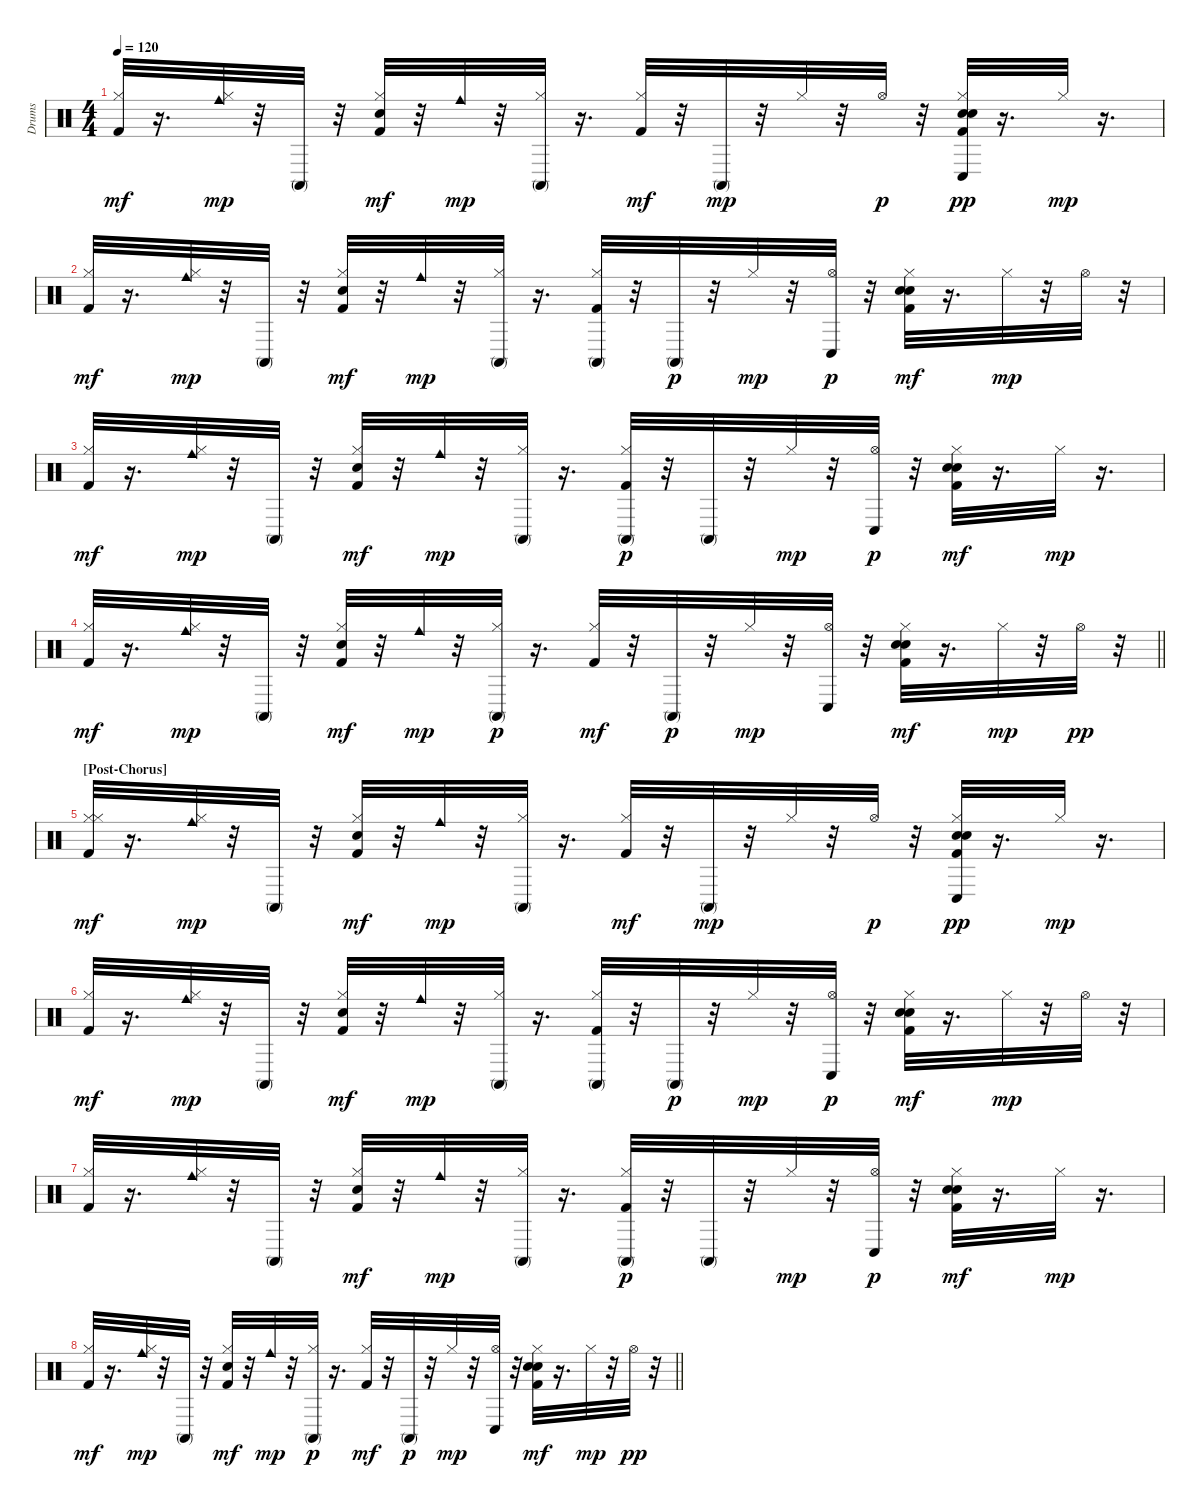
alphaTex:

\track ("Drums" "Drums") {instrument percussion}
\staff {score}
\articulation defaults
\ts (4 4)
\tempo 120
\clef neutral
\ks c
("Hi-Hat (closed)" "Kick (hit) 2").32{dy mf} r.16{d} ("Hi-Hat (closed)" "Cowbell medium (hit)").32{dy mp} r.32 "Conga high (mute)".32 r.32 ("Hi-Hat (closed)" "Electric Snare (hit)" "Kick (hit) 2").32{dy mf} r.32 "Cowbell medium (hit)".32{dy mp} r.32 ("Hi-Hat (closed)" "Conga high (mute)").32 r.16{d} ("Hi-Hat (closed)" "Kick (hit) 2").32{dy mf} r.32 "Conga high (mute)".32{dy mp} r.32 "Hi-Hat (closed)".32 r.32 "Hi-Hat (open)".32{dy p} r.32 ("Hi-Hat (closed)" "Kick (hit) 2" "Hand Clap (hit)" "Electric Snare (hit)" "Conga low (hit)").32{dy pp} r.16{d} "Hi-Hat (closed)".32{dy mp} r.16{d} |
("Hi-Hat (closed)" "Kick (hit) 2").32{dy mf} r.16{d} ("Hi-Hat (closed)" "Cowbell medium (hit)").32{dy mp} r.32 "Conga high (mute)".32 r.32 ("Hi-Hat (closed)" "Electric Snare (hit)" "Kick (hit) 2").32{dy mf} r.32 "Cowbell medium (hit)".32{dy mp} r.32 ("Hi-Hat (closed)" "Conga high (mute)").32 r.16{d} ("Hi-Hat (closed)" "Kick (hit) 2" "Conga high (mute)").32 r.32 "Conga high (mute)".32{dy p} r.32 "Hi-Hat (closed)".32{dy mp} r.32 ("Hi-Hat (open)" "Conga low (hit)").32{dy p} r.32 ("Kick (hit) 2" "Hi-Hat (closed)" "Electric Snare (hit)" "Hand Clap (hit)").32{dy mf} r.16{d} "Hi-Hat (closed)".32{dy mp} r.32 "Hi-Hat (open)".32 r.32 |
("Hi-Hat (closed)" "Kick (hit) 2").32{dy mf} r.16{d} ("Hi-Hat (closed)" "Cowbell medium (hit)").32{dy mp} r.32 "Conga high (mute)".32 r.32 ("Hi-Hat (closed)" "Electric Snare (hit)" "Kick (hit) 2").32{dy mf} r.32 "Cowbell medium (hit)".32{dy mp} r.32 ("Hi-Hat (closed)" "Conga high (mute)").32 r.16{d} ("Kick (hit) 2" "Hi-Hat (closed)" "Conga high (mute)").32{dy p} r.32 "Conga high (mute)".32 r.32 "Hi-Hat (closed)".32{dy mp} r.32 ("Hi-Hat (open)" "Conga low (hit)").32{dy p} r.32 ("Hi-Hat (closed)" "Hand Clap (hit)" "Electric Snare (hit)" "Kick (hit) 2").32{dy mf} r.16{d} "Hi-Hat (closed)".32{dy mp} r.16{d} |
\barLineRight lightlight
("Hi-Hat (closed)" "Kick (hit) 2").32{dy mf} r.16{d} ("Hi-Hat (closed)" "Cowbell medium (hit)").32{dy mp} r.32 "Conga high (mute)".32 r.32 ("Hi-Hat (closed)" "Electric Snare (hit)" "Kick (hit) 2").32{dy mf} r.32 "Cowbell medium (hit)".32{dy mp} r.32 ("Hi-Hat (closed)" "Conga high (mute)").32{dy p} r.16{d} ("Hi-Hat (closed)" "Kick (hit) 2").32{dy mf} r.32 "Conga high (mute)".32{dy p} r.32 "Hi-Hat (closed)".32{dy mp} r.32 ("Hi-Hat (open)" "Conga low (hit)").32 r.32 ("Kick (hit) 2" "Hi-Hat (closed)" "Electric Snare (hit)" "Hand Clap (hit)").32{dy mf} r.16{d} "Hi-Hat (closed)".32{dy mp} r.32 "Hi-Hat (open)".32{dy pp} r.32 |
\section ("" "[Post-Chorus]")
("Hi-Hat (closed)" "Hi-Hat (closed)" "Kick (hit) 2").32{dy mf} r.16{d} ("Hi-Hat (closed)" "Cowbell medium (hit)").32{dy mp} r.32 "Conga high (mute)".32 r.32 ("Hi-Hat (closed)" "Electric Snare (hit)" "Kick (hit) 2").32{dy mf} r.32 "Cowbell medium (hit)".32{dy mp} r.32 ("Hi-Hat (closed)" "Conga high (mute)").32 r.16{d} ("Hi-Hat (closed)" "Kick (hit) 2").32{dy mf} r.32 "Conga high (mute)".32{dy mp} r.32 "Hi-Hat (closed)".32 r.32 "Hi-Hat (open)".32{dy p} r.32 ("Hi-Hat (closed)" "Kick (hit) 2" "Hand Clap (hit)" "Electric Snare (hit)" "Conga low (hit)").32{dy pp} r.16{d} "Hi-Hat (closed)".32{dy mp} r.16{d} |
("Hi-Hat (closed)" "Kick (hit) 2").32{dy mf} r.16{d} ("Hi-Hat (closed)" "Cowbell medium (hit)").32{dy mp} r.32 "Conga high (mute)".32 r.32 ("Hi-Hat (closed)" "Electric Snare (hit)" "Kick (hit) 2").32{dy mf} r.32 "Cowbell medium (hit)".32{dy mp} r.32 ("Hi-Hat (closed)" "Conga high (mute)").32 r.16{d} ("Hi-Hat (closed)" "Kick (hit) 2" "Conga high (mute)").32 r.32 "Conga high (mute)".32{dy p} r.32 "Hi-Hat (closed)".32{dy mp} r.32 ("Hi-Hat (open)" "Conga low (hit)").32{dy p} r.32 ("Kick (hit) 2" "Hi-Hat (closed)" "Electric Snare (hit)" "Hand Clap (hit)").32{dy mf} r.16{d} "Hi-Hat (closed)".32{dy mp} r.32 "Hi-Hat (open)".32 r.32 |
("Kick (hit) 2" "Hi-Hat (closed)").32 r.16{d} ("Hi-Hat (closed)" "Cowbell medium (hit)").32 r.32 "Conga high (mute)".32 r.32 ("Hi-Hat (closed)" "Electric Snare (hit)" "Kick (hit) 2").32{dy mf} r.32 "Cowbell medium (hit)".32{dy mp} r.32 ("Hi-Hat (closed)" "Conga high (mute)").32 r.16{d} ("Hi-Hat (closed)" "Kick (hit) 2" "Conga high (mute)").32{dy p} r.32 "Conga high (mute)".32 r.32 "Hi-Hat (closed)".32{dy mp} r.32 ("Hi-Hat (open)" "Conga low (hit)").32{dy p} r.32 ("Hi-Hat (closed)" "Hand Clap (hit)" "Electric Snare (hit)" "Kick (hit) 2").32{dy mf} r.16{d} "Hi-Hat (closed)".32{dy mp} r.16{d} |
\barLineRight lightlight
("Hi-Hat (closed)" "Kick (hit) 2").32{dy mf} r.16{d} ("Hi-Hat (closed)" "Cowbell medium (hit)").32{dy mp} r.32 "Conga high (mute)".32 r.32 ("Hi-Hat (closed)" "Electric Snare (hit)" "Kick (hit) 2").32{dy mf} r.32 "Cowbell medium (hit)".32{dy mp} r.32 ("Hi-Hat (closed)" "Conga high (mute)").32{dy p} r.16{d} ("Hi-Hat (closed)" "Kick (hit) 2").32{dy mf} r.32 "Conga high (mute)".32{dy p} r.32 "Hi-Hat (closed)".32{dy mp} r.32 ("Hi-Hat (open)" "Conga low (hit)").32 r.32 ("Kick (hit) 2" "Hi-Hat (closed)" "Electric Snare (hit)" "Hand Clap (hit)").32{dy mf} r.16{d} "Hi-Hat (closed)".32{dy mp} r.32 "Hi-Hat (open)".32{dy pp} r.32
